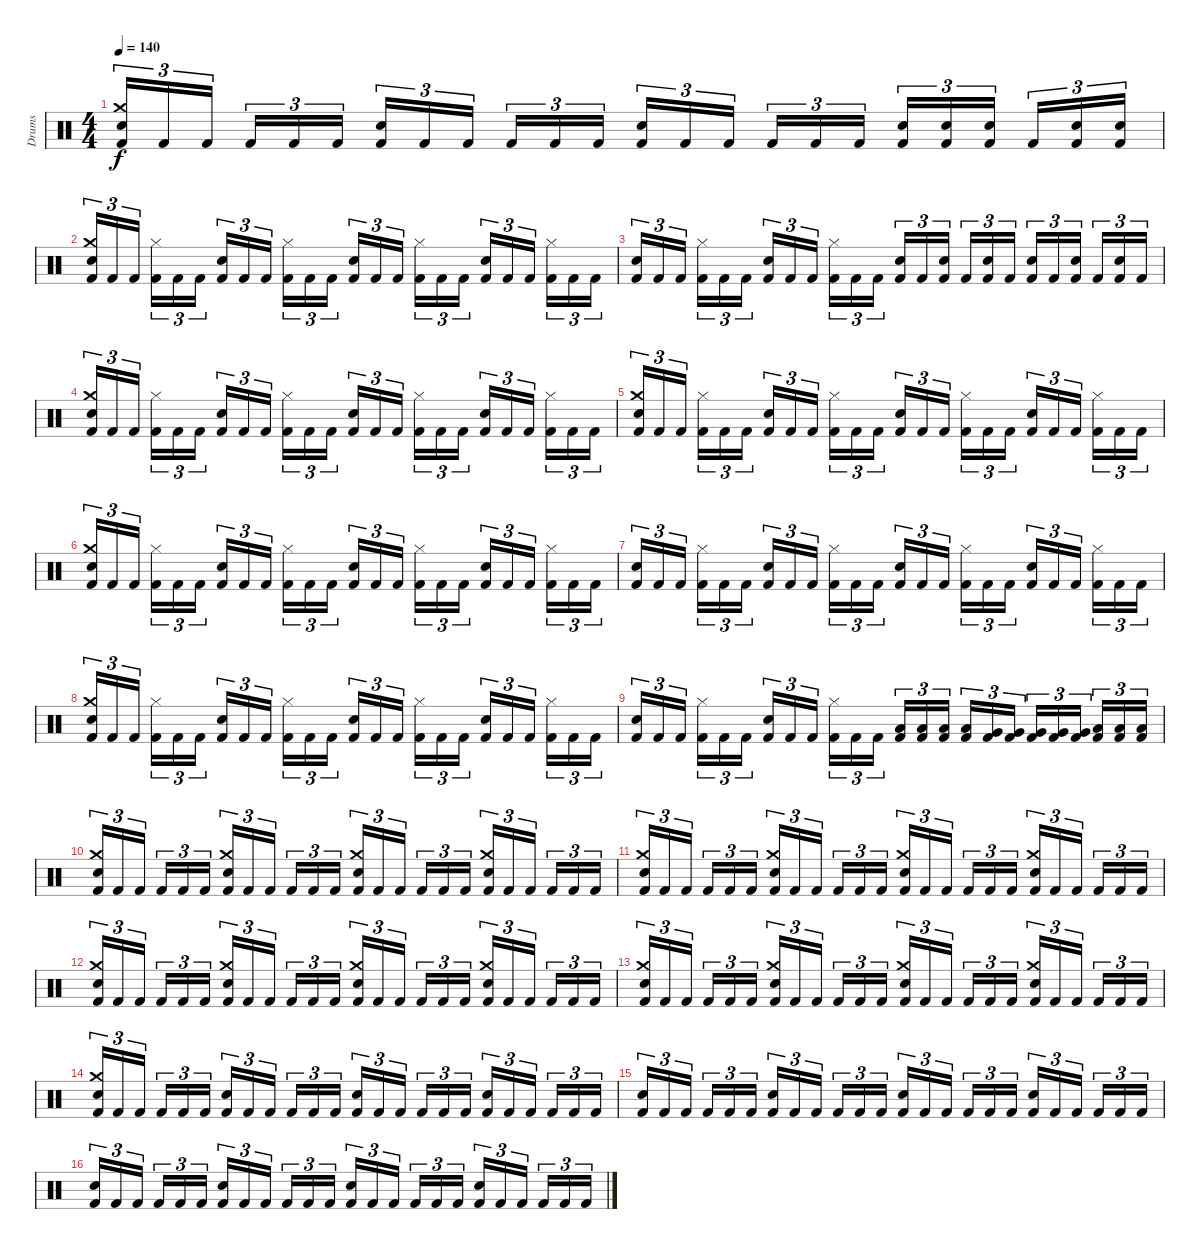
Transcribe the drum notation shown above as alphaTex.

\track ("Drums" "Drums") {instrument percussion}
\staff {score}
\articulation defaults
\ts (4 4)
\tempo 140
\clef neutral
\ks c
("Snare (hit) 2" "Crash medium (hit)" "Kick (hit) 2").16{tu (3 2) dy f} "Kick (hit) 2".16{tu (3 2)} "Kick (hit) 2".16{tu (3 2)} "Kick (hit) 2".16{tu (3 2)} "Kick (hit) 2".16{tu (3 2)} "Kick (hit) 2".16{tu (3 2)} ("Snare (hit) 2" "Kick (hit) 2").16{tu (3 2)} "Kick (hit) 2".16{tu (3 2)} "Kick (hit) 2".16{tu (3 2)} "Kick (hit) 2".16{tu (3 2)} "Kick (hit) 2".16{tu (3 2)} "Kick (hit) 2".16{tu (3 2)} ("Snare (hit) 2" "Kick (hit) 2").16{tu (3 2)} "Kick (hit) 2".16{tu (3 2)} "Kick (hit) 2".16{tu (3 2)} "Kick (hit) 2".16{tu (3 2)} "Kick (hit) 2".16{tu (3 2)} "Kick (hit) 2".16{tu (3 2)} ("Snare (hit) 2" "Kick (hit) 2").16{tu (3 2)} ("Snare (hit) 2" "Kick (hit) 2").16{tu (3 2)} ("Snare (hit) 2" "Kick (hit) 2").16{tu (3 2)} "Kick (hit) 2".16{tu (3 2)} ("Snare (hit) 2" "Kick (hit) 2").16{tu (3 2)} ("Snare (hit) 2" "Kick (hit) 2").16{tu (3 2)} |
("Snare (hit) 2" "Crash medium (hit)" "Kick (hit) 2").16{tu (3 2)} "Kick (hit) 2".16{tu (3 2)} "Kick (hit) 2".16{tu (3 2)} ("Hi-Hat (closed)" "Kick (hit) 2").16{tu (3 2)} "Kick (hit) 2".16{tu (3 2)} "Kick (hit) 2".16{tu (3 2)} ("Snare (hit) 2" "Kick (hit) 2").16{tu (3 2)} "Kick (hit) 2".16{tu (3 2)} "Kick (hit) 2".16{tu (3 2)} ("Hi-Hat (closed)" "Kick (hit) 2").16{tu (3 2)} "Kick (hit) 2".16{tu (3 2)} "Kick (hit) 2".16{tu (3 2)} ("Snare (hit) 2" "Kick (hit) 2").16{tu (3 2)} "Kick (hit) 2".16{tu (3 2)} "Kick (hit) 2".16{tu (3 2)} ("Hi-Hat (closed)" "Kick (hit) 2").16{tu (3 2)} "Kick (hit) 2".16{tu (3 2)} "Kick (hit) 2".16{tu (3 2)} ("Snare (hit) 2" "Kick (hit) 2").16{tu (3 2)} "Kick (hit) 2".16{tu (3 2)} "Kick (hit) 2".16{tu (3 2)} ("Hi-Hat (closed)" "Kick (hit) 2").16{tu (3 2)} "Kick (hit) 2".16{tu (3 2)} "Kick (hit) 2".16{tu (3 2)} |
("Snare (hit) 2" "Kick (hit) 2").16{tu (3 2)} "Kick (hit) 2".16{tu (3 2)} "Kick (hit) 2".16{tu (3 2)} ("Hi-Hat (closed)" "Kick (hit) 2").16{tu (3 2)} "Kick (hit) 2".16{tu (3 2)} "Kick (hit) 2".16{tu (3 2)} ("Snare (hit) 2" "Kick (hit) 2").16{tu (3 2)} "Kick (hit) 2".16{tu (3 2)} "Kick (hit) 2".16{tu (3 2)} ("Hi-Hat (closed)" "Kick (hit) 2").16{tu (3 2)} "Kick (hit) 2".16{tu (3 2)} "Kick (hit) 2".16{tu (3 2)} ("Snare (hit) 2" "Kick (hit) 2").16{tu (3 2)} "Kick (hit) 2".16{tu (3 2)} ("Snare (hit) 2" "Kick (hit) 2").16{tu (3 2)} "Kick (hit) 2".16{tu (3 2)} ("Snare (hit) 2" "Kick (hit) 2").16{tu (3 2)} "Kick (hit) 2".16{tu (3 2)} ("Snare (hit) 2" "Kick (hit) 2").16{tu (3 2)} "Kick (hit) 2".16{tu (3 2)} ("Snare (hit) 2" "Kick (hit) 2").16{tu (3 2)} "Kick (hit) 2".16{tu (3 2)} ("Snare (hit) 2" "Kick (hit) 2").16{tu (3 2)} "Kick (hit) 2".16{tu (3 2)} |
("Snare (hit) 2" "Crash medium (hit)" "Kick (hit) 2").16{tu (3 2)} "Kick (hit) 2".16{tu (3 2)} "Kick (hit) 2".16{tu (3 2)} ("Hi-Hat (closed)" "Kick (hit) 2").16{tu (3 2)} "Kick (hit) 2".16{tu (3 2)} "Kick (hit) 2".16{tu (3 2)} ("Snare (hit) 2" "Kick (hit) 2").16{tu (3 2)} "Kick (hit) 2".16{tu (3 2)} "Kick (hit) 2".16{tu (3 2)} ("Hi-Hat (closed)" "Kick (hit) 2").16{tu (3 2)} "Kick (hit) 2".16{tu (3 2)} "Kick (hit) 2".16{tu (3 2)} ("Snare (hit) 2" "Kick (hit) 2").16{tu (3 2)} "Kick (hit) 2".16{tu (3 2)} "Kick (hit) 2".16{tu (3 2)} ("Hi-Hat (closed)" "Kick (hit) 2").16{tu (3 2)} "Kick (hit) 2".16{tu (3 2)} "Kick (hit) 2".16{tu (3 2)} ("Snare (hit) 2" "Kick (hit) 2").16{tu (3 2)} "Kick (hit) 2".16{tu (3 2)} "Kick (hit) 2".16{tu (3 2)} ("Hi-Hat (closed)" "Kick (hit) 2").16{tu (3 2)} "Kick (hit) 2".16{tu (3 2)} "Kick (hit) 2".16{tu (3 2)} |
("Snare (hit) 2" "Crash medium (hit)" "Kick (hit) 2").16{tu (3 2)} "Kick (hit) 2".16{tu (3 2)} "Kick (hit) 2".16{tu (3 2)} ("Hi-Hat (closed)" "Kick (hit) 2").16{tu (3 2)} "Kick (hit) 2".16{tu (3 2)} "Kick (hit) 2".16{tu (3 2)} ("Snare (hit) 2" "Kick (hit) 2").16{tu (3 2)} "Kick (hit) 2".16{tu (3 2)} "Kick (hit) 2".16{tu (3 2)} ("Hi-Hat (closed)" "Kick (hit) 2").16{tu (3 2)} "Kick (hit) 2".16{tu (3 2)} "Kick (hit) 2".16{tu (3 2)} ("Snare (hit) 2" "Kick (hit) 2").16{tu (3 2)} "Kick (hit) 2".16{tu (3 2)} "Kick (hit) 2".16{tu (3 2)} ("Hi-Hat (closed)" "Kick (hit) 2").16{tu (3 2)} "Kick (hit) 2".16{tu (3 2)} "Kick (hit) 2".16{tu (3 2)} ("Snare (hit) 2" "Kick (hit) 2").16{tu (3 2)} "Kick (hit) 2".16{tu (3 2)} "Kick (hit) 2".16{tu (3 2)} ("Hi-Hat (closed)" "Kick (hit) 2").16{tu (3 2)} "Kick (hit) 2".16{tu (3 2)} "Kick (hit) 2".16{tu (3 2)} |
("Snare (hit) 2" "Crash medium (hit)" "Kick (hit) 2").16{tu (3 2)} "Kick (hit) 2".16{tu (3 2)} "Kick (hit) 2".16{tu (3 2)} ("Hi-Hat (closed)" "Kick (hit) 2").16{tu (3 2)} "Kick (hit) 2".16{tu (3 2)} "Kick (hit) 2".16{tu (3 2)} ("Snare (hit) 2" "Kick (hit) 2").16{tu (3 2)} "Kick (hit) 2".16{tu (3 2)} "Kick (hit) 2".16{tu (3 2)} ("Hi-Hat (closed)" "Kick (hit) 2").16{tu (3 2)} "Kick (hit) 2".16{tu (3 2)} "Kick (hit) 2".16{tu (3 2)} ("Snare (hit) 2" "Kick (hit) 2").16{tu (3 2)} "Kick (hit) 2".16{tu (3 2)} "Kick (hit) 2".16{tu (3 2)} ("Hi-Hat (closed)" "Kick (hit) 2").16{tu (3 2)} "Kick (hit) 2".16{tu (3 2)} "Kick (hit) 2".16{tu (3 2)} ("Snare (hit) 2" "Kick (hit) 2").16{tu (3 2)} "Kick (hit) 2".16{tu (3 2)} "Kick (hit) 2".16{tu (3 2)} ("Hi-Hat (closed)" "Kick (hit) 2").16{tu (3 2)} "Kick (hit) 2".16{tu (3 2)} "Kick (hit) 2".16{tu (3 2)} |
("Snare (hit) 2" "Kick (hit) 2").16{tu (3 2)} "Kick (hit) 2".16{tu (3 2)} "Kick (hit) 2".16{tu (3 2)} ("Hi-Hat (closed)" "Kick (hit) 2").16{tu (3 2)} "Kick (hit) 2".16{tu (3 2)} "Kick (hit) 2".16{tu (3 2)} ("Snare (hit) 2" "Kick (hit) 2").16{tu (3 2)} "Kick (hit) 2".16{tu (3 2)} "Kick (hit) 2".16{tu (3 2)} ("Hi-Hat (closed)" "Kick (hit) 2").16{tu (3 2)} "Kick (hit) 2".16{tu (3 2)} "Kick (hit) 2".16{tu (3 2)} ("Snare (hit) 2" "Kick (hit) 2").16{tu (3 2)} "Kick (hit) 2".16{tu (3 2)} "Kick (hit) 2".16{tu (3 2)} ("Hi-Hat (closed)" "Kick (hit) 2").16{tu (3 2)} "Kick (hit) 2".16{tu (3 2)} "Kick (hit) 2".16{tu (3 2)} ("Snare (hit) 2" "Kick (hit) 2").16{tu (3 2)} "Kick (hit) 2".16{tu (3 2)} "Kick (hit) 2".16{tu (3 2)} ("Hi-Hat (closed)" "Kick (hit) 2").16{tu (3 2)} "Kick (hit) 2".16{tu (3 2)} "Kick (hit) 2".16{tu (3 2)} |
("Snare (hit) 2" "Crash medium (hit)" "Kick (hit) 2").16{tu (3 2)} "Kick (hit) 2".16{tu (3 2)} "Kick (hit) 2".16{tu (3 2)} ("Hi-Hat (closed)" "Kick (hit) 2").16{tu (3 2)} "Kick (hit) 2".16{tu (3 2)} "Kick (hit) 2".16{tu (3 2)} ("Snare (hit) 2" "Kick (hit) 2").16{tu (3 2)} "Kick (hit) 2".16{tu (3 2)} "Kick (hit) 2".16{tu (3 2)} ("Hi-Hat (closed)" "Kick (hit) 2").16{tu (3 2)} "Kick (hit) 2".16{tu (3 2)} "Kick (hit) 2".16{tu (3 2)} ("Snare (hit) 2" "Kick (hit) 2").16{tu (3 2)} "Kick (hit) 2".16{tu (3 2)} "Kick (hit) 2".16{tu (3 2)} ("Hi-Hat (closed)" "Kick (hit) 2").16{tu (3 2)} "Kick (hit) 2".16{tu (3 2)} "Kick (hit) 2".16{tu (3 2)} ("Snare (hit) 2" "Kick (hit) 2").16{tu (3 2)} "Kick (hit) 2".16{tu (3 2)} "Kick (hit) 2".16{tu (3 2)} ("Hi-Hat (closed)" "Kick (hit) 2").16{tu (3 2)} "Kick (hit) 2".16{tu (3 2)} "Kick (hit) 2".16{tu (3 2)} |
("Snare (hit) 2" "Kick (hit) 2").16{tu (3 2)} "Kick (hit) 2".16{tu (3 2)} "Kick (hit) 2".16{tu (3 2)} ("Hi-Hat (closed)" "Kick (hit) 2").16{tu (3 2)} "Kick (hit) 2".16{tu (3 2)} "Kick (hit) 2".16{tu (3 2)} ("Snare (hit) 2" "Kick (hit) 2").16{tu (3 2)} "Kick (hit) 2".16{tu (3 2)} "Kick (hit) 2".16{tu (3 2)} ("Hi-Hat (closed)" "Kick (hit) 2").16{tu (3 2)} "Kick (hit) 2".16{tu (3 2)} "Kick (hit) 2".16{tu (3 2)} ("Low Floor Tom (hit)" "Kick (hit) 2").16{tu (3 2)} ("Low Floor Tom (hit)" "Kick (hit) 2").16{tu (3 2)} ("Low Floor Tom (hit)" "Kick (hit) 2").16{tu (3 2)} ("Low Floor Tom (hit)" "Kick (hit) 2").16{tu (3 2)} ("Very Low Tom (hit)" "Kick (hit) 2").16{tu (3 2)} ("Very Low Tom (hit)" "Kick (hit) 2").16{tu (3 2)} ("Very Low Tom (hit)" "Kick (hit) 2").16{tu (3 2)} ("Very Low Tom (hit)" "Kick (hit) 2").16{tu (3 2)} ("Very Low Tom (hit)" "Kick (hit) 2").16{tu (3 2)} ("Low Tom (hit)" "Kick (hit) 2").16{tu (3 2)} ("Low Tom (hit)" "Kick (hit) 2").16{tu (3 2)} ("Low Tom (hit)" "Kick (hit) 2").16{tu (3 2)} |
("Snare (hit) 2" "Crash medium (hit)" "Kick (hit) 2").16{tu (3 2)} "Kick (hit) 2".16{tu (3 2)} "Kick (hit) 2".16{tu (3 2)} "Kick (hit) 2".16{tu (3 2)} "Kick (hit) 2".16{tu (3 2)} "Kick (hit) 2".16{tu (3 2)} ("Snare (hit) 2" "Crash medium (hit)" "Kick (hit) 2").16{tu (3 2)} "Kick (hit) 2".16{tu (3 2)} "Kick (hit) 2".16{tu (3 2)} "Kick (hit) 2".16{tu (3 2)} "Kick (hit) 2".16{tu (3 2)} "Kick (hit) 2".16{tu (3 2)} ("Snare (hit) 2" "Crash medium (hit)" "Kick (hit) 2").16{tu (3 2)} "Kick (hit) 2".16{tu (3 2)} "Kick (hit) 2".16{tu (3 2)} "Kick (hit) 2".16{tu (3 2)} "Kick (hit) 2".16{tu (3 2)} "Kick (hit) 2".16{tu (3 2)} ("Snare (hit) 2" "Crash medium (hit)" "Kick (hit) 2").16{tu (3 2)} "Kick (hit) 2".16{tu (3 2)} "Kick (hit) 2".16{tu (3 2)} "Kick (hit) 2".16{tu (3 2)} "Kick (hit) 2".16{tu (3 2)} "Kick (hit) 2".16{tu (3 2)} |
("Snare (hit) 2" "Crash medium (hit)" "Kick (hit) 2").16{tu (3 2)} "Kick (hit) 2".16{tu (3 2)} "Kick (hit) 2".16{tu (3 2)} "Kick (hit) 2".16{tu (3 2)} "Kick (hit) 2".16{tu (3 2)} "Kick (hit) 2".16{tu (3 2)} ("Snare (hit) 2" "Crash medium (hit)" "Kick (hit) 2").16{tu (3 2)} "Kick (hit) 2".16{tu (3 2)} "Kick (hit) 2".16{tu (3 2)} "Kick (hit) 2".16{tu (3 2)} "Kick (hit) 2".16{tu (3 2)} "Kick (hit) 2".16{tu (3 2)} ("Snare (hit) 2" "Crash medium (hit)" "Kick (hit) 2").16{tu (3 2)} "Kick (hit) 2".16{tu (3 2)} "Kick (hit) 2".16{tu (3 2)} "Kick (hit) 2".16{tu (3 2)} "Kick (hit) 2".16{tu (3 2)} "Kick (hit) 2".16{tu (3 2)} ("Snare (hit) 2" "Crash medium (hit)" "Kick (hit) 2").16{tu (3 2)} "Kick (hit) 2".16{tu (3 2)} "Kick (hit) 2".16{tu (3 2)} "Kick (hit) 2".16{tu (3 2)} "Kick (hit) 2".16{tu (3 2)} "Kick (hit) 2".16{tu (3 2)} |
("Snare (hit) 2" "Crash medium (hit)" "Kick (hit) 2").16{tu (3 2)} "Kick (hit) 2".16{tu (3 2)} "Kick (hit) 2".16{tu (3 2)} "Kick (hit) 2".16{tu (3 2)} "Kick (hit) 2".16{tu (3 2)} "Kick (hit) 2".16{tu (3 2)} ("Snare (hit) 2" "Crash medium (hit)" "Kick (hit) 2").16{tu (3 2)} "Kick (hit) 2".16{tu (3 2)} "Kick (hit) 2".16{tu (3 2)} "Kick (hit) 2".16{tu (3 2)} "Kick (hit) 2".16{tu (3 2)} "Kick (hit) 2".16{tu (3 2)} ("Snare (hit) 2" "Crash medium (hit)" "Kick (hit) 2").16{tu (3 2)} "Kick (hit) 2".16{tu (3 2)} "Kick (hit) 2".16{tu (3 2)} "Kick (hit) 2".16{tu (3 2)} "Kick (hit) 2".16{tu (3 2)} "Kick (hit) 2".16{tu (3 2)} ("Snare (hit) 2" "Crash medium (hit)" "Kick (hit) 2").16{tu (3 2)} "Kick (hit) 2".16{tu (3 2)} "Kick (hit) 2".16{tu (3 2)} "Kick (hit) 2".16{tu (3 2)} "Kick (hit) 2".16{tu (3 2)} "Kick (hit) 2".16{tu (3 2)} |
("Snare (hit) 2" "Crash medium (hit)" "Kick (hit) 2").16{tu (3 2)} "Kick (hit) 2".16{tu (3 2)} "Kick (hit) 2".16{tu (3 2)} "Kick (hit) 2".16{tu (3 2)} "Kick (hit) 2".16{tu (3 2)} "Kick (hit) 2".16{tu (3 2)} ("Snare (hit) 2" "Crash medium (hit)" "Kick (hit) 2").16{tu (3 2)} "Kick (hit) 2".16{tu (3 2)} "Kick (hit) 2".16{tu (3 2)} "Kick (hit) 2".16{tu (3 2)} "Kick (hit) 2".16{tu (3 2)} "Kick (hit) 2".16{tu (3 2)} ("Snare (hit) 2" "Crash medium (hit)" "Kick (hit) 2").16{tu (3 2)} "Kick (hit) 2".16{tu (3 2)} "Kick (hit) 2".16{tu (3 2)} "Kick (hit) 2".16{tu (3 2)} "Kick (hit) 2".16{tu (3 2)} "Kick (hit) 2".16{tu (3 2)} ("Snare (hit) 2" "Crash medium (hit)" "Kick (hit) 2").16{tu (3 2)} "Kick (hit) 2".16{tu (3 2)} "Kick (hit) 2".16{tu (3 2)} "Kick (hit) 2".16{tu (3 2)} "Kick (hit) 2".16{tu (3 2)} "Kick (hit) 2".16{tu (3 2)} |
("Snare (hit) 2" "Crash medium (hit)" "Kick (hit) 2").16{tu (3 2)} "Kick (hit) 2".16{tu (3 2)} "Kick (hit) 2".16{tu (3 2)} "Kick (hit) 2".16{tu (3 2)} "Kick (hit) 2".16{tu (3 2)} "Kick (hit) 2".16{tu (3 2)} ("Snare (hit) 2" "Kick (hit) 2").16{tu (3 2)} "Kick (hit) 2".16{tu (3 2)} "Kick (hit) 2".16{tu (3 2)} "Kick (hit) 2".16{tu (3 2)} "Kick (hit) 2".16{tu (3 2)} "Kick (hit) 2".16{tu (3 2)} ("Snare (hit) 2" "Kick (hit) 2").16{tu (3 2)} "Kick (hit) 2".16{tu (3 2)} "Kick (hit) 2".16{tu (3 2)} "Kick (hit) 2".16{tu (3 2)} "Kick (hit) 2".16{tu (3 2)} "Kick (hit) 2".16{tu (3 2)} ("Snare (hit) 2" "Kick (hit) 2").16{tu (3 2)} "Kick (hit) 2".16{tu (3 2)} "Kick (hit) 2".16{tu (3 2)} "Kick (hit) 2".16{tu (3 2)} "Kick (hit) 2".16{tu (3 2)} "Kick (hit) 2".16{tu (3 2)} |
("Snare (hit) 2" "Kick (hit) 2").16{tu (3 2)} "Kick (hit) 2".16{tu (3 2)} "Kick (hit) 2".16{tu (3 2)} "Kick (hit) 2".16{tu (3 2)} "Kick (hit) 2".16{tu (3 2)} "Kick (hit) 2".16{tu (3 2)} ("Snare (hit) 2" "Kick (hit) 2").16{tu (3 2)} "Kick (hit) 2".16{tu (3 2)} "Kick (hit) 2".16{tu (3 2)} "Kick (hit) 2".16{tu (3 2)} "Kick (hit) 2".16{tu (3 2)} "Kick (hit) 2".16{tu (3 2)} ("Snare (hit) 2" "Kick (hit) 2").16{tu (3 2)} "Kick (hit) 2".16{tu (3 2)} "Kick (hit) 2".16{tu (3 2)} "Kick (hit) 2".16{tu (3 2)} "Kick (hit) 2".16{tu (3 2)} "Kick (hit) 2".16{tu (3 2)} ("Snare (hit) 2" "Kick (hit) 2").16{tu (3 2)} "Kick (hit) 2".16{tu (3 2)} "Kick (hit) 2".16{tu (3 2)} "Kick (hit) 2".16{tu (3 2)} "Kick (hit) 2".16{tu (3 2)} "Kick (hit) 2".16{tu (3 2)} |
("Snare (hit) 2" "Kick (hit) 2").16{tu (3 2)} "Kick (hit) 2".16{tu (3 2)} "Kick (hit) 2".16{tu (3 2)} "Kick (hit) 2".16{tu (3 2)} "Kick (hit) 2".16{tu (3 2)} "Kick (hit) 2".16{tu (3 2)} ("Snare (hit) 2" "Kick (hit) 2").16{tu (3 2)} "Kick (hit) 2".16{tu (3 2)} "Kick (hit) 2".16{tu (3 2)} "Kick (hit) 2".16{tu (3 2)} "Kick (hit) 2".16{tu (3 2)} "Kick (hit) 2".16{tu (3 2)} ("Snare (hit) 2" "Kick (hit) 2").16{tu (3 2)} "Kick (hit) 2".16{tu (3 2)} "Kick (hit) 2".16{tu (3 2)} "Kick (hit) 2".16{tu (3 2)} "Kick (hit) 2".16{tu (3 2)} "Kick (hit) 2".16{tu (3 2)} ("Snare (hit) 2" "Kick (hit) 2").16{tu (3 2)} "Kick (hit) 2".16{tu (3 2)} "Kick (hit) 2".16{tu (3 2)} "Kick (hit) 2".16{tu (3 2)} "Kick (hit) 2".16{tu (3 2)} "Kick (hit) 2".16{tu (3 2)}
